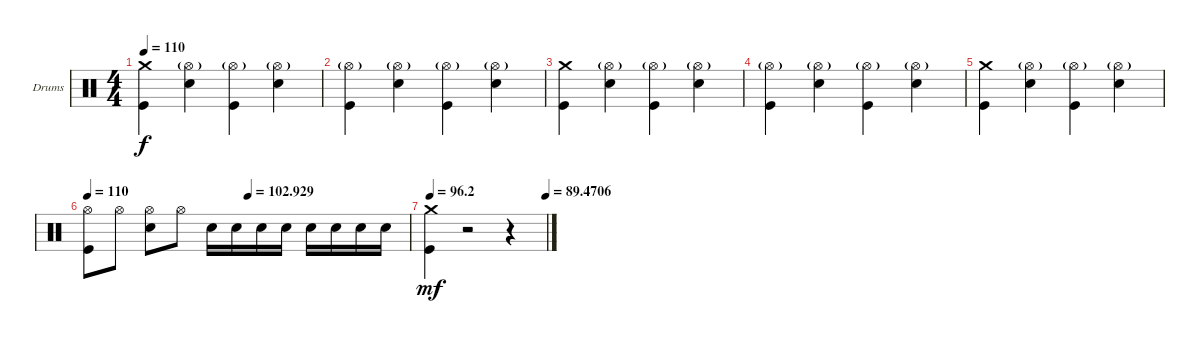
\defaultSystemsLayout 4
\bracketExtendMode groupsimilarinstruments
\firstSystemTrackNameOrientation horizontal
\otherSystemsTrackNameOrientation horizontal
\track ("Drumkit" "Drums") {instrument percussion}
\staff {score}
\articulation defaults
\ts (4 4)
\tempo 110
\clef neutral
\ks c
("Crash medium (hit)" "Kick (hit)").4{dy f} ("Hi-Hat (open)"{g} "Snare (hit) 2").4 ("Hi-Hat (open)"{g} "Kick (hit)").4 ("Hi-Hat (open)"{g} "Snare (hit) 2").4 |
("Hi-Hat (open)"{g} "Kick (hit)").4 ("Hi-Hat (open)"{g} "Snare (hit) 2").4 ("Hi-Hat (open)"{g} "Kick (hit)").4 ("Hi-Hat (open)"{g} "Snare (hit) 2").4 |
\scale
0.333333 ("Crash medium (hit)" "Kick (hit)").4 ("Hi-Hat (open)"{g} "Snare (hit) 2").4 ("Hi-Hat (open)"{g} "Kick (hit)").4 ("Hi-Hat (open)"{g} "Snare (hit) 2").4 |
\scale
0.333333 ("Hi-Hat (open)"{g} "Kick (hit)").4 ("Hi-Hat (open)"{g} "Snare (hit) 2").4 ("Hi-Hat (open)"{g} "Kick (hit)").4 ("Hi-Hat (open)"{g} "Snare (hit) 2").4 |
\scale
0.333333 ("Crash medium (hit)" "Kick (hit)").4 ("Hi-Hat (open)"{g} "Snare (hit) 2").4 ("Hi-Hat (open)"{g} "Kick (hit)").4 ("Hi-Hat (open)"{g} "Snare (hit) 2").4 |
\tempo 110
\tempo (102.929 0.5)
\scale
0.333333 ("Hi-Hat (open)" "Kick (hit)").8 "Hi-Hat (open)".8 ("Hi-Hat (open)" "Snare (hit) 2").8 "Hi-Hat (open)".8 "Snare (hit) 2".16 "Snare (hit) 2".16 "Snare (hit) 2".16 "Snare (hit) 2".16 "Snare (hit) 2".16 "Snare (hit) 2".16 "Snare (hit) 2".16 "Snare (hit) 2".16 |
\tempo
96.2
\tempo (89.4706 1)
\scale
0.333333 ("Crash medium (hit)" "Kick (hit)").4{dy mf} r.2 r.4 |
\scale
0.333333
